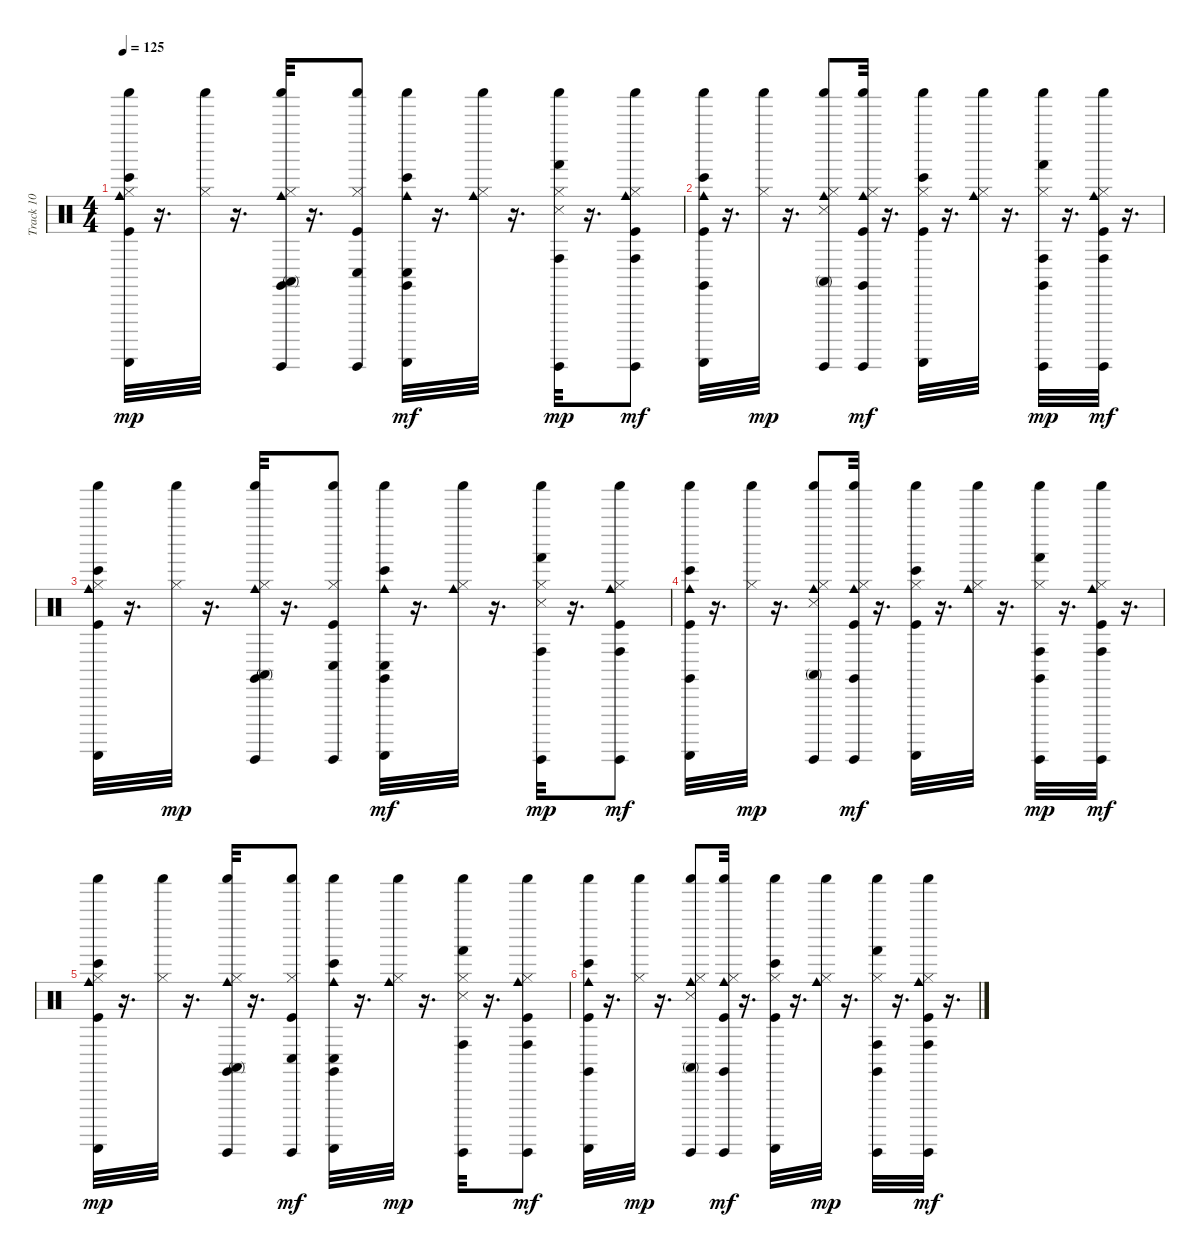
\track ("Track 10" "Track 10") {instrument percussion}
\staff {score}
\articulation defaults
\ts (4 4)
\tempo 125
\clef neutral
\ks c
("Shaker (hit)" "Bongo High (hit)" "Cowbell medium (hit)" "Guiro (scrap-return)" "Kick (hit)" "Hi-Hat (closed)").32{dy mp} r.16{d} ("Shaker (hit)" "Hi-Hat (closed)").32 r.16{d} ("Shaker (hit)" "Claves (hit)" "Conga high (mute)" "Cowbell medium (hit)" "Guiro (hit)" "Hi-Hat (closed)").32 r.16{d} ("Shaker (hit)" "Conga low (hit)" "Guiro (hit)" "Kick (hit)" "Hi-Hat (closed)").8 ("Shaker (hit)" "Claves (hit)" "Conga low (hit)" "Bongo High (hit)" "Cowbell medium (hit)" "Guiro (scrap-return)").32{dy mf} r.16{d} ("Shaker (hit)" "Cowbell medium (hit)" "Hi-Hat (closed)").32 r.16{d} ("Shaker (hit)" "Conga high (hit)" "Hand (hit)" "Guiro (hit)" "Hi-Hat (closed)" "Snare (side stick) 3").32{dy mp} r.16{d} ("Shaker (hit)" "Conga high (hit)" "Cowbell medium (hit)" "Guiro (hit)" "Kick (hit)" "Hi-Hat (closed)").8{dy mf} |
("Shaker (hit)" "Claves (hit)" "Bongo High (hit)" "Cowbell medium (hit)" "Guiro (scrap-return)" "Kick (hit)").32 r.16{d} ("Shaker (hit)" "Hi-Hat (closed)").32{dy mp} r.16{d} ("Shaker (hit)" "Conga high (mute)" "Cowbell medium (hit)" "Guiro (hit)" "Hi-Hat (closed)" "Snare (side stick) 3").8 ("Shaker (hit)" "Claves (hit)" "Cowbell medium (hit)" "Guiro (hit)" "Kick (hit)" "Hi-Hat (closed)").32{dy mf} r.16{d} ("Shaker (hit)" "Bongo High (hit)" "Guiro (scrap-return)" "Kick (hit)" "Hi-Hat (closed)").32 r.16{d} ("Shaker (hit)" "Cowbell medium (hit)" "Hi-Hat (closed)").32 r.16{d} ("Shaker (hit)" "Claves (hit)" "Conga high (hit)" "Hand (hit)" "Guiro (hit)" "Hi-Hat (closed)").32{dy mp} r.16{d} ("Shaker (hit)" "Conga high (hit)" "Cowbell medium (hit)" "Guiro (hit)" "Kick (hit)" "Hi-Hat (closed)").32{dy mf} r.16{d} |
("Shaker (hit)" "Bongo High (hit)" "Cowbell medium (hit)" "Guiro (scrap-return)" "Kick (hit)" "Hi-Hat (closed)").32 r.16{d} ("Shaker (hit)" "Hi-Hat (closed)").32{dy mp} r.16{d} ("Shaker (hit)" "Claves (hit)" "Conga high (mute)" "Cowbell medium (hit)" "Guiro (hit)" "Hi-Hat (closed)").32 r.16{d} ("Shaker (hit)" "Conga low (hit)" "Guiro (hit)" "Kick (hit)" "Hi-Hat (closed)").8 ("Shaker (hit)" "Claves (hit)" "Conga low (hit)" "Bongo High (hit)" "Cowbell medium (hit)" "Guiro (scrap-return)").32{dy mf} r.16{d} ("Shaker (hit)" "Cowbell medium (hit)" "Hi-Hat (closed)").32 r.16{d} ("Shaker (hit)" "Conga high (hit)" "Hand (hit)" "Guiro (hit)" "Hi-Hat (closed)" "Snare (side stick) 3").32{dy mp} r.16{d} ("Shaker (hit)" "Conga high (hit)" "Cowbell medium (hit)" "Guiro (hit)" "Kick (hit)" "Hi-Hat (closed)").8{dy mf} |
("Shaker (hit)" "Claves (hit)" "Bongo High (hit)" "Cowbell medium (hit)" "Guiro (scrap-return)" "Kick (hit)").32 r.16{d} ("Shaker (hit)" "Hi-Hat (closed)").32{dy mp} r.16{d} ("Shaker (hit)" "Conga high (mute)" "Cowbell medium (hit)" "Guiro (hit)" "Hi-Hat (closed)" "Snare (side stick) 3").8 ("Shaker (hit)" "Claves (hit)" "Cowbell medium (hit)" "Guiro (hit)" "Kick (hit)" "Hi-Hat (closed)").32{dy mf} r.16{d} ("Shaker (hit)" "Bongo High (hit)" "Guiro (scrap-return)" "Kick (hit)" "Hi-Hat (closed)").32 r.16{d} ("Shaker (hit)" "Cowbell medium (hit)" "Hi-Hat (closed)").32 r.16{d} ("Shaker (hit)" "Claves (hit)" "Conga high (hit)" "Hand (hit)" "Guiro (hit)" "Hi-Hat (closed)").32{dy mp} r.16{d} ("Shaker (hit)" "Conga high (hit)" "Cowbell medium (hit)" "Guiro (hit)" "Kick (hit)" "Hi-Hat (closed)").32{dy mf} r.16{d} |
("Shaker (hit)" "Bongo High (hit)" "Cowbell medium (hit)" "Guiro (scrap-return)" "Kick (hit)" "Hi-Hat (closed)").32{dy mp} r.16{d} ("Shaker (hit)" "Hi-Hat (closed)").32 r.16{d} ("Shaker (hit)" "Claves (hit)" "Conga high (mute)" "Cowbell medium (hit)" "Guiro (hit)" "Hi-Hat (closed)").32 r.16{d} ("Shaker (hit)" "Conga low (hit)" "Guiro (hit)" "Kick (hit)" "Hi-Hat (closed)").8{dy mf} ("Shaker (hit)" "Claves (hit)" "Conga low (hit)" "Bongo High (hit)" "Cowbell medium (hit)" "Guiro (scrap-return)").32 r.16{d} ("Shaker (hit)" "Cowbell medium (hit)" "Hi-Hat (closed)").32{dy mp} r.16{d} ("Shaker (hit)" "Conga high (hit)" "Hand (hit)" "Guiro (hit)" "Hi-Hat (closed)" "Snare (side stick) 3").32 r.16{d} ("Shaker (hit)" "Conga high (hit)" "Cowbell medium (hit)" "Guiro (hit)" "Kick (hit)" "Hi-Hat (closed)").8{dy mf} |
("Shaker (hit)" "Claves (hit)" "Bongo High (hit)" "Cowbell medium (hit)" "Guiro (scrap-return)" "Kick (hit)").32 r.16{d} ("Shaker (hit)" "Hi-Hat (closed)").32{dy mp} r.16{d} ("Shaker (hit)" "Conga high (mute)" "Cowbell medium (hit)" "Guiro (hit)" "Hi-Hat (closed)" "Snare (side stick) 3").8 ("Shaker (hit)" "Claves (hit)" "Cowbell medium (hit)" "Guiro (hit)" "Kick (hit)" "Hi-Hat (closed)").32{dy mf} r.16{d} ("Shaker (hit)" "Bongo High (hit)" "Guiro (scrap-return)" "Kick (hit)" "Hi-Hat (closed)").32 r.16{d} ("Shaker (hit)" "Cowbell medium (hit)" "Hi-Hat (closed)").32{dy mp} r.16{d} ("Shaker (hit)" "Claves (hit)" "Conga high (hit)" "Hand (hit)" "Guiro (hit)" "Hi-Hat (closed)").32 r.16{d} ("Shaker (hit)" "Conga high (hit)" "Cowbell medium (hit)" "Guiro (hit)" "Kick (hit)" "Hi-Hat (closed)").32{dy mf} r.16{d}
